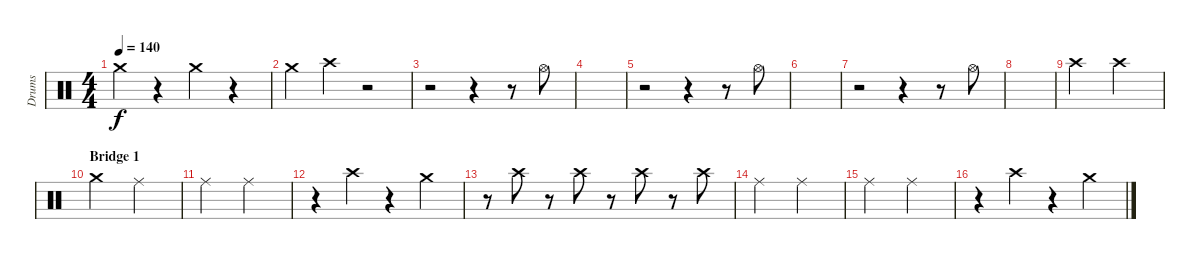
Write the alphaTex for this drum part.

\track ("Drums" "Drums") {instrument percussion}
\staff {score}
\articulation defaults
\ts (4 4)
\tempo 140
\clef neutral
\ks c "Crash medium (hit)".4{dy f}
r.4 "Crash medium (hit)".4 r.4 |
"Crash medium (hit)".4 "Crash high (hit)".4 r.2 |
r.2 r.4 r.8 "Hi-Hat (open)".8 |
|
r.2 r.4 r.8 "Hi-Hat (open)".8 |
|
r.2 r.4 r.8 "Hi-Hat (open)".8 |
|
"Crash high (hit)".2 "Crash high (hit)".2 |
\section ("" "Bridge 1")
"Crash medium (hit)".2 "Ride (middle)".2 |
"Ride (middle)".2 "Ride (middle)".2 |
r.4 "Crash high (hit)".4 r.4 "Crash medium (hit)".4 |
r.8 "Crash high (hit)".8 r.8 "Crash high (hit)".8 r.8 "Crash high (hit)".8 r.8 "Crash high (hit)".8 |
"Ride (middle)".2 "Ride (middle)".2 |
"Ride (middle)".2 "Ride (middle)".2 |
r.4 "Crash high (hit)".4 r.4 "Crash medium (hit)".4
